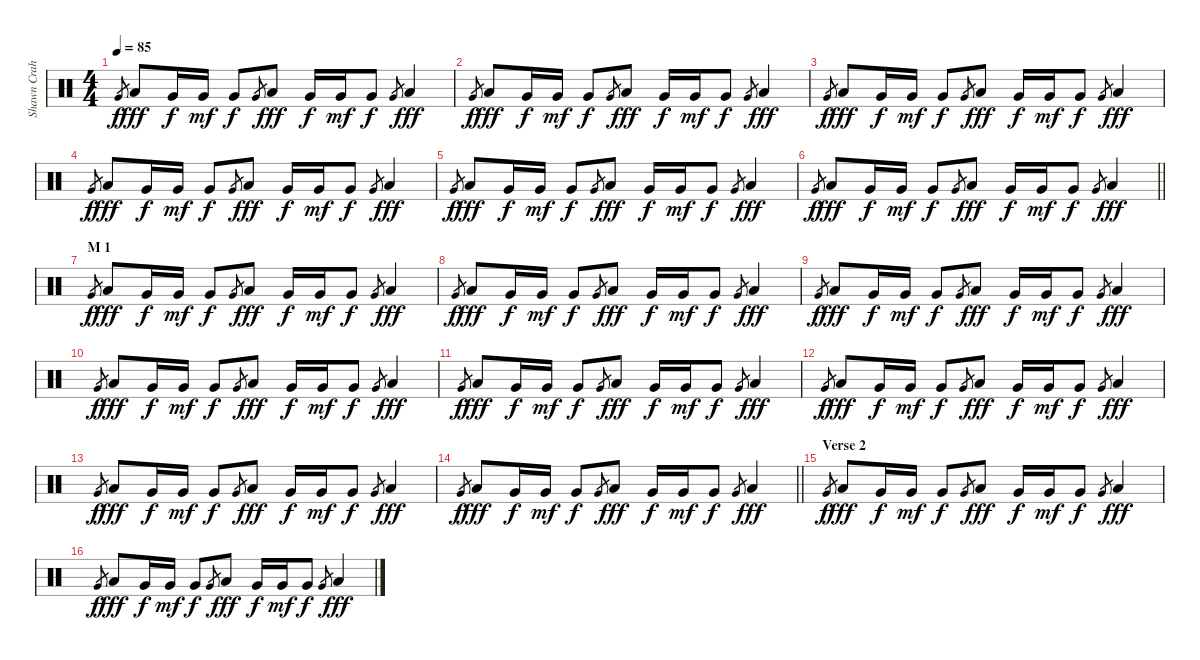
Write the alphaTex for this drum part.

\track ("Shawn Crahan" "Shawn Crah") {instrument percussion}
\staff {score}
\articulation defaults
\ts (4 4)
\tempo 85
\clef neutral
\ks c "Very Low Tom (hit)".8{gr dy f} "Low Tom (hit)".8{dy fff} "Very Low Tom (hit)".16{dy f} "Very Low Tom (hit)".16{dy mf} "Very Low Tom (hit)".8{dy f} "Very Low Tom (hit)".8{gr} "Low Tom (hit)".8{dy fff} "Very Low Tom (hit)".16{dy f} "Very Low Tom (hit)".16{dy mf} "Very Low Tom (hit)".8{dy f} "Very Low Tom (hit)".8{gr} "Low Tom (hit)".4{dy fff}
|
"Very Low Tom (hit)".8{gr dy f} "Low Tom (hit)".8{dy fff} "Very Low Tom (hit)".16{dy f} "Very Low Tom (hit)".16{dy mf} "Very Low Tom (hit)".8{dy f} "Very Low Tom (hit)".8{gr} "Low Tom (hit)".8{dy fff} "Very Low Tom (hit)".16{dy f} "Very Low Tom (hit)".16{dy mf} "Very Low Tom (hit)".8{dy f} "Very Low Tom (hit)".8{gr} "Low Tom (hit)".4{dy fff} |
"Very Low Tom (hit)".8{gr dy f} "Low Tom (hit)".8{dy fff} "Very Low Tom (hit)".16{dy f} "Very Low Tom (hit)".16{dy mf} "Very Low Tom (hit)".8{dy f} "Very Low Tom (hit)".8{gr} "Low Tom (hit)".8{dy fff} "Very Low Tom (hit)".16{dy f} "Very Low Tom (hit)".16{dy mf} "Very Low Tom (hit)".8{dy f} "Very Low Tom (hit)".8{gr} "Low Tom (hit)".4{dy fff} |
"Very Low Tom (hit)".8{gr dy f} "Low Tom (hit)".8{dy fff} "Very Low Tom (hit)".16{dy f} "Very Low Tom (hit)".16{dy mf} "Very Low Tom (hit)".8{dy f} "Very Low Tom (hit)".8{gr} "Low Tom (hit)".8{dy fff} "Very Low Tom (hit)".16{dy f} "Very Low Tom (hit)".16{dy mf} "Very Low Tom (hit)".8{dy f} "Very Low Tom (hit)".8{gr} "Low Tom (hit)".4{dy fff} |
"Very Low Tom (hit)".8{gr dy f} "Low Tom (hit)".8{dy fff} "Very Low Tom (hit)".16{dy f} "Very Low Tom (hit)".16{dy mf} "Very Low Tom (hit)".8{dy f} "Very Low Tom (hit)".8{gr} "Low Tom (hit)".8{dy fff} "Very Low Tom (hit)".16{dy f} "Very Low Tom (hit)".16{dy mf} "Very Low Tom (hit)".8{dy f} "Very Low Tom (hit)".8{gr} "Low Tom (hit)".4{dy fff} |
\barLineRight lightlight "Very Low Tom (hit)".8{gr dy f} "Low Tom (hit)".8{dy fff} "Very Low Tom (hit)".16{dy f} "Very Low Tom (hit)".16{dy mf} "Very Low Tom (hit)".8{dy f} "Very Low Tom (hit)".8{gr} "Low Tom (hit)".8{dy fff} "Very Low Tom (hit)".16{dy f} "Very Low Tom (hit)".16{dy mf} "Very Low Tom (hit)".8{dy f} "Very Low Tom (hit)".8{gr} "Low Tom (hit)".4{dy fff}
|
\section ("" "M 1")
"Very Low Tom (hit)".8{gr dy f} "Low Tom (hit)".8{dy fff} "Very Low Tom (hit)".16{dy f} "Very Low Tom (hit)".16{dy mf} "Very Low Tom (hit)".8{dy f} "Very Low Tom (hit)".8{gr} "Low Tom (hit)".8{dy fff} "Very Low Tom (hit)".16{dy f} "Very Low Tom (hit)".16{dy mf} "Very Low Tom (hit)".8{dy f} "Very Low Tom (hit)".8{gr} "Low Tom (hit)".4{dy fff} |
"Very Low Tom (hit)".8{gr dy f} "Low Tom (hit)".8{dy fff} "Very Low Tom (hit)".16{dy f} "Very Low Tom (hit)".16{dy mf} "Very Low Tom (hit)".8{dy f} "Very Low Tom (hit)".8{gr} "Low Tom (hit)".8{dy fff} "Very Low Tom (hit)".16{dy f} "Very Low Tom (hit)".16{dy mf} "Very Low Tom (hit)".8{dy f} "Very Low Tom (hit)".8{gr} "Low Tom (hit)".4{dy fff} |
"Very Low Tom (hit)".8{gr dy f} "Low Tom (hit)".8{dy fff} "Very Low Tom (hit)".16{dy f} "Very Low Tom (hit)".16{dy mf} "Very Low Tom (hit)".8{dy f} "Very Low Tom (hit)".8{gr} "Low Tom (hit)".8{dy fff} "Very Low Tom (hit)".16{dy f} "Very Low Tom (hit)".16{dy mf} "Very Low Tom (hit)".8{dy f} "Very Low Tom (hit)".8{gr} "Low Tom (hit)".4{dy fff} |
"Very Low Tom (hit)".8{gr dy f} "Low Tom (hit)".8{dy fff} "Very Low Tom (hit)".16{dy f} "Very Low Tom (hit)".16{dy mf} "Very Low Tom (hit)".8{dy f} "Very Low Tom (hit)".8{gr} "Low Tom (hit)".8{dy fff} "Very Low Tom (hit)".16{dy f} "Very Low Tom (hit)".16{dy mf} "Very Low Tom (hit)".8{dy f} "Very Low Tom (hit)".8{gr} "Low Tom (hit)".4{dy fff} |
"Very Low Tom (hit)".8{gr dy f} "Low Tom (hit)".8{dy fff} "Very Low Tom (hit)".16{dy f} "Very Low Tom (hit)".16{dy mf} "Very Low Tom (hit)".8{dy f} "Very Low Tom (hit)".8{gr} "Low Tom (hit)".8{dy fff} "Very Low Tom (hit)".16{dy f} "Very Low Tom (hit)".16{dy mf} "Very Low Tom (hit)".8{dy f} "Very Low Tom (hit)".8{gr} "Low Tom (hit)".4{dy fff} |
"Very Low Tom (hit)".8{gr dy f} "Low Tom (hit)".8{dy fff} "Very Low Tom (hit)".16{dy f} "Very Low Tom (hit)".16{dy mf} "Very Low Tom (hit)".8{dy f} "Very Low Tom (hit)".8{gr} "Low Tom (hit)".8{dy fff} "Very Low Tom (hit)".16{dy f} "Very Low Tom (hit)".16{dy mf} "Very Low Tom (hit)".8{dy f} "Very Low Tom (hit)".8{gr} "Low Tom (hit)".4{dy fff} |
"Very Low Tom (hit)".8{gr dy f} "Low Tom (hit)".8{dy fff} "Very Low Tom (hit)".16{dy f} "Very Low Tom (hit)".16{dy mf} "Very Low Tom (hit)".8{dy f} "Very Low Tom (hit)".8{gr} "Low Tom (hit)".8{dy fff} "Very Low Tom (hit)".16{dy f} "Very Low Tom (hit)".16{dy mf} "Very Low Tom (hit)".8{dy f} "Very Low Tom (hit)".8{gr} "Low Tom (hit)".4{dy fff} |
\barLineRight lightlight "Very Low Tom (hit)".8{gr dy f} "Low Tom (hit)".8{dy fff} "Very Low Tom (hit)".16{dy f} "Very Low Tom (hit)".16{dy mf} "Very Low Tom (hit)".8{dy f} "Very Low Tom (hit)".8{gr} "Low Tom (hit)".8{dy fff} "Very Low Tom (hit)".16{dy f} "Very Low Tom (hit)".16{dy mf} "Very Low Tom (hit)".8{dy f} "Very Low Tom (hit)".8{gr} "Low Tom (hit)".4{dy fff}
|
\section ("" "Verse 2")
"Very Low Tom (hit)".8{gr dy f} "Low Tom (hit)".8{dy fff} "Very Low Tom (hit)".16{dy f} "Very Low Tom (hit)".16{dy mf} "Very Low Tom (hit)".8{dy f} "Very Low Tom (hit)".8{gr} "Low Tom (hit)".8{dy fff} "Very Low Tom (hit)".16{dy f} "Very Low Tom (hit)".16{dy mf} "Very Low Tom (hit)".8{dy f} "Very Low Tom (hit)".8{gr} "Low Tom (hit)".4{dy fff} |
"Very Low Tom (hit)".8{gr dy f} "Low Tom (hit)".8{dy fff} "Very Low Tom (hit)".16{dy f} "Very Low Tom (hit)".16{dy mf} "Very Low Tom (hit)".8{dy f} "Very Low Tom (hit)".8{gr} "Low Tom (hit)".8{dy fff} "Very Low Tom (hit)".16{dy f} "Very Low Tom (hit)".16{dy mf} "Very Low Tom (hit)".8{dy f} "Very Low Tom (hit)".8{gr} "Low Tom (hit)".4{dy fff}
